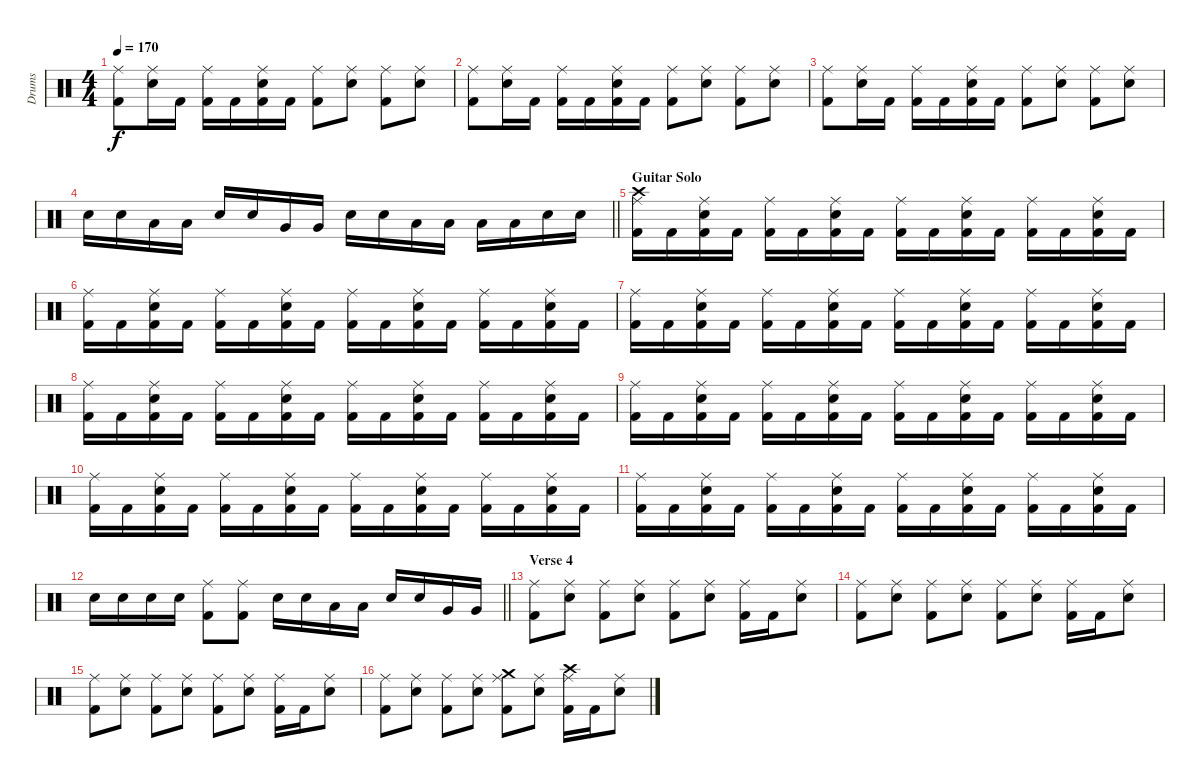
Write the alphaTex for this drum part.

\track ("Drums" "Drums") {instrument percussion}
\staff {score}
\articulation defaults
\ts (4 4)
\tempo 170
\clef neutral
\ks c
("Ride (middle)" "Kick (hit) 2").8{dy f} ("Ride (middle)" "Electric Snare (hit)").16 "Kick (hit) 2".16 ("Ride (middle)" "Kick (hit) 2").16 "Kick (hit) 2".16 ("Ride (middle)" "Electric Snare (hit)" "Kick (hit) 2").16 "Kick (hit) 2".16 ("Ride (middle)" "Kick (hit) 2").8 ("Ride (middle)" "Electric Snare (hit)").8 ("Ride (middle)" "Kick (hit) 2").8 ("Ride (middle)" "Electric Snare (hit)").8 |
("Ride (middle)" "Kick (hit) 2").8 ("Ride (middle)" "Electric Snare (hit)").16 "Kick (hit) 2".16 ("Ride (middle)" "Kick (hit) 2").16 "Kick (hit) 2".16 ("Ride (middle)" "Electric Snare (hit)" "Kick (hit) 2").16 "Kick (hit) 2".16 ("Ride (middle)" "Kick (hit) 2").8 ("Ride (middle)" "Electric Snare (hit)").8 ("Ride (middle)" "Kick (hit) 2").8 ("Ride (middle)" "Electric Snare (hit)").8 |
("Ride (middle)" "Kick (hit) 2").8 ("Ride (middle)" "Electric Snare (hit)").16 "Kick (hit) 2".16 ("Ride (middle)" "Kick (hit) 2").16 "Kick (hit) 2".16 ("Ride (middle)" "Electric Snare (hit)" "Kick (hit) 2").16 "Kick (hit) 2".16 ("Ride (middle)" "Kick (hit) 2").8 ("Ride (middle)" "Electric Snare (hit)").8 ("Ride (middle)" "Kick (hit) 2").8 ("Ride (middle)" "Electric Snare (hit)").8 |
\barLineRight lightlight "Electric Snare (hit)".16 "Electric Snare (hit)".16 "Low Tom (hit)".16 "Low Tom (hit)".16 "Electric Snare (hit)".16 "Electric Snare (hit)".16 "Very Low Tom (hit)".16 "Very Low Tom (hit)".16 "Electric Snare (hit)".16 "Electric Snare (hit)".16 "Low Floor Tom (hit)".16 "Low Floor Tom (hit)".16 "Low Tom (hit)".16 "Low Tom (hit)".16 "Electric Snare (hit)".16 "Electric Snare (hit)".16
|
\section ("" "Guitar Solo")
("Crash high (hit)" "Ride (middle)" "Kick (hit) 2").16 "Kick (hit) 2".16 ("Ride (middle)" "Electric Snare (hit)" "Kick (hit) 2").16 "Kick (hit) 2".16 ("Ride (middle)" "Kick (hit) 2").16 "Kick (hit) 2".16 ("Ride (middle)" "Electric Snare (hit)" "Kick (hit) 2").16 "Kick (hit) 2".16 ("Ride (middle)" "Kick (hit) 2").16 "Kick (hit) 2".16 ("Ride (middle)" "Electric Snare (hit)" "Kick (hit) 2").16 "Kick (hit) 2".16 ("Ride (middle)" "Kick (hit) 2").16 "Kick (hit) 2".16 ("Ride (middle)" "Electric Snare (hit)" "Kick (hit) 2").16 "Kick (hit) 2".16 |
("Ride (middle)" "Kick (hit) 2").16 "Kick (hit) 2".16 ("Ride (middle)" "Electric Snare (hit)" "Kick (hit) 2").16 "Kick (hit) 2".16 ("Ride (middle)" "Kick (hit) 2").16 "Kick (hit) 2".16 ("Ride (middle)" "Electric Snare (hit)" "Kick (hit) 2").16 "Kick (hit) 2".16 ("Ride (middle)" "Kick (hit) 2").16 "Kick (hit) 2".16 ("Ride (middle)" "Electric Snare (hit)" "Kick (hit) 2").16 "Kick (hit) 2".16 ("Ride (middle)" "Kick (hit) 2").16 "Kick (hit) 2".16 ("Ride (middle)" "Electric Snare (hit)" "Kick (hit) 2").16 "Kick (hit) 2".16 |
("Ride (middle)" "Kick (hit) 2").16 "Kick (hit) 2".16 ("Ride (middle)" "Electric Snare (hit)" "Kick (hit) 2").16 "Kick (hit) 2".16 ("Ride (middle)" "Kick (hit) 2").16 "Kick (hit) 2".16 ("Ride (middle)" "Electric Snare (hit)" "Kick (hit) 2").16 "Kick (hit) 2".16 ("Ride (middle)" "Kick (hit) 2").16 "Kick (hit) 2".16 ("Ride (middle)" "Electric Snare (hit)" "Kick (hit) 2").16 "Kick (hit) 2".16 ("Ride (middle)" "Kick (hit) 2").16 "Kick (hit) 2".16 ("Ride (middle)" "Electric Snare (hit)" "Kick (hit) 2").16 "Kick (hit) 2".16 |
("Ride (middle)" "Kick (hit) 2").16 "Kick (hit) 2".16 ("Ride (middle)" "Electric Snare (hit)" "Kick (hit) 2").16 "Kick (hit) 2".16 ("Ride (middle)" "Kick (hit) 2").16 "Kick (hit) 2".16 ("Ride (middle)" "Electric Snare (hit)" "Kick (hit) 2").16 "Kick (hit) 2".16 ("Ride (middle)" "Kick (hit) 2").16 "Kick (hit) 2".16 ("Ride (middle)" "Electric Snare (hit)" "Kick (hit) 2").16 "Kick (hit) 2".16 ("Ride (middle)" "Kick (hit) 2").16 "Kick (hit) 2".16 ("Ride (middle)" "Electric Snare (hit)" "Kick (hit) 2").16 "Kick (hit) 2".16 |
("Ride (middle)" "Kick (hit) 2").16 "Kick (hit) 2".16 ("Ride (middle)" "Electric Snare (hit)" "Kick (hit) 2").16 "Kick (hit) 2".16 ("Ride (middle)" "Kick (hit) 2").16 "Kick (hit) 2".16 ("Ride (middle)" "Electric Snare (hit)" "Kick (hit) 2").16 "Kick (hit) 2".16 ("Ride (middle)" "Kick (hit) 2").16 "Kick (hit) 2".16 ("Ride (middle)" "Electric Snare (hit)" "Kick (hit) 2").16 "Kick (hit) 2".16 ("Ride (middle)" "Kick (hit) 2").16 "Kick (hit) 2".16 ("Ride (middle)" "Electric Snare (hit)" "Kick (hit) 2").16 "Kick (hit) 2".16 |
("Ride (middle)" "Kick (hit) 2").16 "Kick (hit) 2".16 ("Ride (middle)" "Electric Snare (hit)" "Kick (hit) 2").16 "Kick (hit) 2".16 ("Ride (middle)" "Kick (hit) 2").16 "Kick (hit) 2".16 ("Ride (middle)" "Electric Snare (hit)" "Kick (hit) 2").16 "Kick (hit) 2".16 ("Ride (middle)" "Kick (hit) 2").16 "Kick (hit) 2".16 ("Ride (middle)" "Electric Snare (hit)" "Kick (hit) 2").16 "Kick (hit) 2".16 ("Ride (middle)" "Kick (hit) 2").16 "Kick (hit) 2".16 ("Ride (middle)" "Electric Snare (hit)" "Kick (hit) 2").16 "Kick (hit) 2".16 |
("Ride (middle)" "Kick (hit) 2").16 "Kick (hit) 2".16 ("Ride (middle)" "Electric Snare (hit)" "Kick (hit) 2").16 "Kick (hit) 2".16 ("Ride (middle)" "Kick (hit) 2").16 "Kick (hit) 2".16 ("Ride (middle)" "Electric Snare (hit)" "Kick (hit) 2").16 "Kick (hit) 2".16 ("Ride (middle)" "Kick (hit) 2").16 "Kick (hit) 2".16 ("Ride (middle)" "Electric Snare (hit)" "Kick (hit) 2").16 "Kick (hit) 2".16 ("Ride (middle)" "Kick (hit) 2").16 "Kick (hit) 2".16 ("Ride (middle)" "Electric Snare (hit)" "Kick (hit) 2").16 "Kick (hit) 2".16 |
\barLineRight lightlight "Electric Snare (hit)".16 "Electric Snare (hit)".16 "Electric Snare (hit)".16 "Electric Snare (hit)".16
("Ride (middle)" "Kick (hit) 2").8 ("Ride (middle)" "Kick (hit) 2").8 "Electric Snare (hit)".16 "Electric Snare (hit)".16 "Low Tom (hit)".16 "Low Tom (hit)".16 "Electric Snare (hit)".16 "Electric Snare (hit)".16 "Very Low Tom (hit)".16 "Very Low Tom (hit)".16 |
\section ("" "Verse 4")
("Ride (middle)" "Kick (hit) 2").8 ("Ride (middle)" "Electric Snare (hit)").8 ("Ride (middle)" "Kick (hit) 2").8 ("Ride (middle)" "Electric Snare (hit)").8 ("Ride (middle)" "Kick (hit) 2").8 ("Ride (middle)" "Electric Snare (hit)").8 ("Ride (middle)" "Kick (hit) 2").16 "Kick (hit) 2".16 ("Ride (middle)" "Electric Snare (hit)").8 |
("Ride (middle)" "Kick (hit) 2").8 ("Ride (middle)" "Electric Snare (hit)").8 ("Ride (middle)" "Kick (hit) 2").8 ("Ride (middle)" "Electric Snare (hit)").8 ("Ride (middle)" "Kick (hit) 2").8 ("Ride (middle)" "Electric Snare (hit)").8 ("Ride (middle)" "Kick (hit) 2").16 "Kick (hit) 2".16 ("Ride (middle)" "Electric Snare (hit)").8 |
("Ride (middle)" "Kick (hit) 2").8 ("Ride (middle)" "Electric Snare (hit)").8 ("Ride (middle)" "Kick (hit) 2").8 ("Ride (middle)" "Electric Snare (hit)").8 ("Ride (middle)" "Kick (hit) 2").8 ("Ride (middle)" "Electric Snare (hit)").8 ("Ride (middle)" "Kick (hit) 2").16 "Kick (hit) 2".16 ("Ride (middle)" "Electric Snare (hit)").8 |
("Ride (middle)" "Kick (hit) 2").8 ("Ride (middle)" "Electric Snare (hit)").8 ("Ride (middle)" "Kick (hit) 2").8 ("Ride (middle)" "Electric Snare (hit)").8 ("Crash medium (hit)" "Ride (middle)" "Kick (hit) 2").8 ("Ride (middle)" "Electric Snare (hit)").8 ("Crash high (hit)" "Ride (middle)" "Kick (hit) 2").16 "Kick (hit) 2".16 ("Ride (middle)" "Electric Snare (hit)").8
